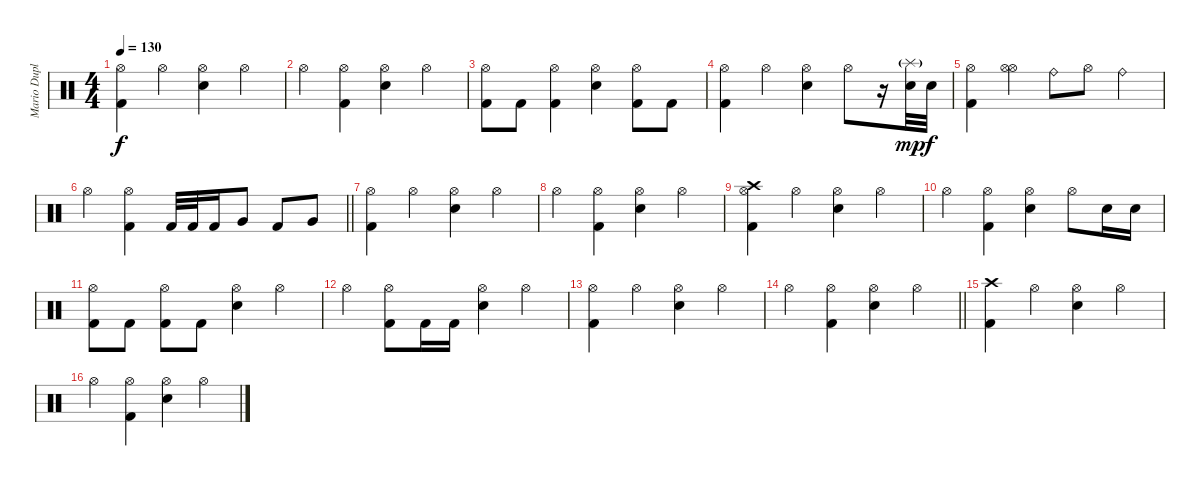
\track ("Mario Duplantier" "Mario Dupl") {instrument percussion}
\staff {score}
\articulation defaults
\ts (4 4)
\tempo 130
\clef neutral
\ks c
("Hi-Hat (open)" "Kick (hit) 2").4{dy f} "Hi-Hat (open)".4 ("Hi-Hat (open)" "Electric Snare (hit)").4 "Hi-Hat (open)".4 |
"Hi-Hat (open)".4 ("Hi-Hat (open)" "Kick (hit) 2").4 ("Hi-Hat (open)" "Electric Snare (hit)").4 "Hi-Hat (open)".4 |
("Hi-Hat (open)" "Kick (hit) 2").8 "Kick (hit) 2".8 ("Hi-Hat (open)" "Kick (hit) 2").4 ("Hi-Hat (open)" "Electric Snare (hit)").4 ("Hi-Hat (open)" "Kick (hit) 2").8 "Kick (hit) 2".8 |
("Hi-Hat (open)" "Kick (hit) 2").4 "Hi-Hat (open)".4 ("Hi-Hat (open)" "Electric Snare (hit)").4 "Hi-Hat (open)".8 r.16 ("Electric Snare (hit)" "Splash (hit)"{g}).32{dy mp} "Electric Snare (hit)".32{dy f} |
("Hi-Hat (open)" "Kick (hit) 2").4 ("Hi-Hat (open)" "Hi-Hat (open)").4 "Ride (bell)".8 "Hi-Hat (open)".8 "Ride (bell)".4 |
\barLineRight lightlight "Hi-Hat (open)".4
("Hi-Hat (open)" "Kick (hit) 2").4 "Kick (hit) 2".32 "Kick (hit) 2".32 "Kick (hit) 2".16 "Very Low Tom (hit)".8 "Kick (hit) 2".8 "Very Low Tom (hit)".8 |
\section ("" "")
("Hi-Hat (open)" "Kick (hit) 2").4 "Hi-Hat (open)".4 ("Hi-Hat (open)" "Electric Snare (hit)").4 "Hi-Hat (open)".4 |
"Hi-Hat (open)".4 ("Hi-Hat (open)" "Kick (hit) 2").4 ("Hi-Hat (open)" "Electric Snare (hit)").4 "Hi-Hat (open)".4 |
("Crash high (hit)" "Hi-Hat (open)" "Kick (hit) 2").4 "Hi-Hat (open)".4 ("Hi-Hat (open)" "Electric Snare (hit)").4 "Hi-Hat (open)".4 |
"Hi-Hat (open)".4 ("Hi-Hat (open)" "Kick (hit) 2").4 ("Hi-Hat (open)" "Electric Snare (hit)").4 "Hi-Hat (open)".8 "Electric Snare (hit)".16 "Electric Snare (hit)".16 |
("Hi-Hat (open)" "Kick (hit) 2").8 "Kick (hit) 2".8 ("Hi-Hat (open)" "Kick (hit) 2").8 "Kick (hit) 2".8 ("Hi-Hat (open)" "Electric Snare (hit)").4 "Hi-Hat (open)".4 |
"Hi-Hat (open)".4 ("Hi-Hat (open)" "Kick (hit) 2").8 "Kick (hit) 2".16 "Kick (hit) 2".16 ("Hi-Hat (open)" "Electric Snare (hit)").4 "Hi-Hat (open)".4 |
("Hi-Hat (open)" "Kick (hit) 2").4 "Hi-Hat (open)".4 ("Hi-Hat (open)" "Electric Snare (hit)").4 "Hi-Hat (open)".4 |
\barLineRight lightlight "Hi-Hat (open)".4
("Hi-Hat (open)" "Kick (hit) 2").4 ("Hi-Hat (open)" "Electric Snare (hit)").4 "Hi-Hat (open)".4 |
\section ("" "")
("Crash high (hit)" "Kick (hit) 2").4 "Hi-Hat (open)".4 ("Hi-Hat (open)" "Electric Snare (hit)").4 "Hi-Hat (open)".4 |
"Hi-Hat (open)".4 ("Hi-Hat (open)" "Kick (hit) 2").4 ("Hi-Hat (open)" "Electric Snare (hit)").4 "Hi-Hat (open)".4
